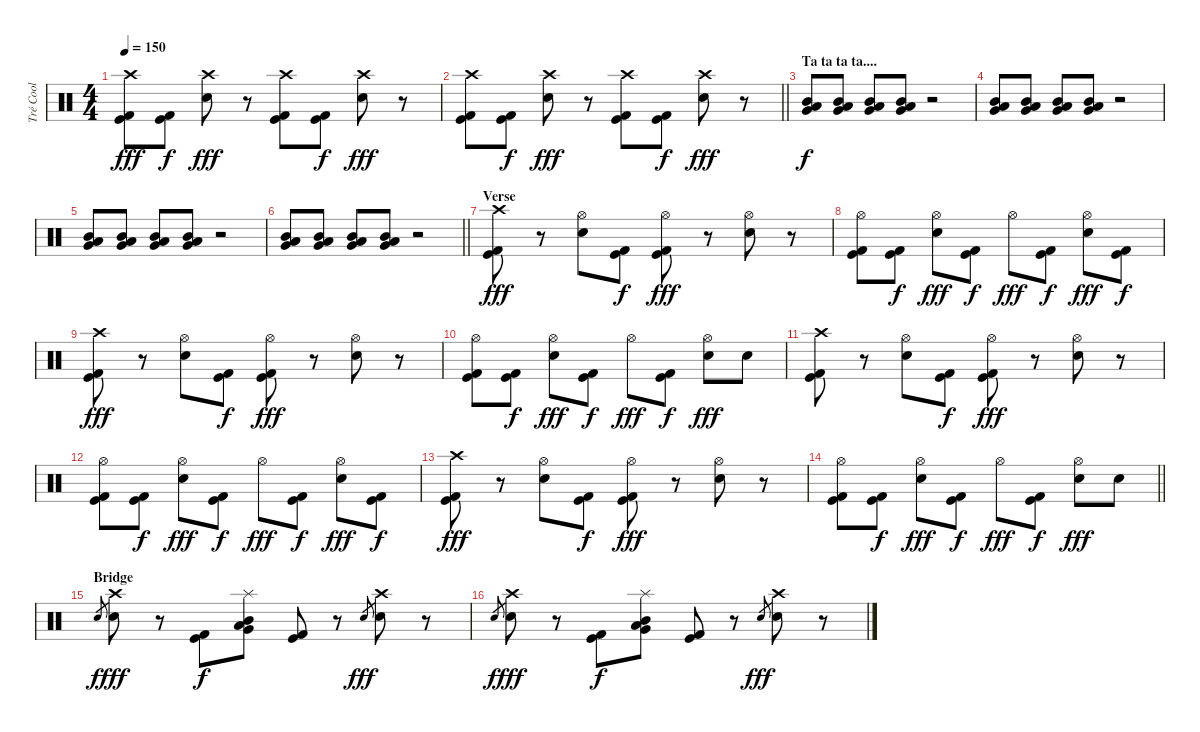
\track ("Tré Cool" "Tré Cool") {instrument percussion}
\staff {score}
\articulation defaults
\ts (4 4)
\tempo 150
\clef neutral
\ks c
("Crash high (hit)" "Kick (hit)" "Kick (hit) 2").8{dy fff} ("Kick (hit)" "Kick (hit) 2").8{dy f} ("Crash high (hit)" "Snare (hit) 2").8{dy fff} r.8 ("Crash high (hit)" "Kick (hit)" "Kick (hit) 2").8 ("Kick (hit)" "Kick (hit) 2").8{dy f} ("Crash high (hit)" "Snare (hit) 2").8{dy fff} r.8 |
\barLineRight lightlight
("Crash high (hit)" "Kick (hit)" "Kick (hit) 2").8 ("Kick (hit)" "Kick (hit) 2").8{dy f} ("Crash high (hit)" "Snare (hit) 2").8{dy fff} r.8 ("Crash high (hit)" "Kick (hit)" "Kick (hit) 2").8 ("Kick (hit)" "Kick (hit) 2").8{dy f} ("Crash high (hit)" "Snare (hit) 2").8{dy fff} r.8 |
\section ("" "Ta ta ta ta....")
("Mid Tom (hit)" "Low Tom (hit)" "Very Low Tom (hit)").8{dy f} ("Mid Tom (hit)" "Low Tom (hit)" "Very Low Tom (hit)").8 ("Mid Tom (hit)" "Low Tom (hit)" "Very Low Tom (hit)").8 ("Mid Tom (hit)" "Low Tom (hit)" "Very Low Tom (hit)").8 r.2 |
("Mid Tom (hit)" "Low Tom (hit)" "Very Low Tom (hit)").8 ("Mid Tom (hit)" "Low Tom (hit)" "Very Low Tom (hit)").8 ("Mid Tom (hit)" "Low Tom (hit)" "Very Low Tom (hit)").8 ("Mid Tom (hit)" "Low Tom (hit)" "Very Low Tom (hit)").8 r.2 |
("Mid Tom (hit)" "Low Tom (hit)" "Very Low Tom (hit)").8 ("Mid Tom (hit)" "Low Tom (hit)" "Very Low Tom (hit)").8 ("Mid Tom (hit)" "Low Tom (hit)" "Very Low Tom (hit)").8 ("Mid Tom (hit)" "Low Tom (hit)" "Very Low Tom (hit)").8 r.2 |
\barLineRight lightlight
("Mid Tom (hit)" "Low Tom (hit)" "Very Low Tom (hit)").8 ("Mid Tom (hit)" "Low Tom (hit)" "Very Low Tom (hit)").8 ("Mid Tom (hit)" "Low Tom (hit)" "Very Low Tom (hit)").8 ("Mid Tom (hit)" "Low Tom (hit)" "Very Low Tom (hit)").8 r.2 |
\section ("" "Verse")
("Crash high (hit)" "Kick (hit)" "Kick (hit) 2").8{dy fff} r.8 ("Hi-Hat (open)" "Snare (hit) 2").8 ("Kick (hit)" "Kick (hit) 2").8{dy f} ("Hi-Hat (open)" "Kick (hit)" "Kick (hit) 2").8{dy fff} r.8 ("Hi-Hat (open)" "Snare (hit) 2").8 r.8 |
("Hi-Hat (open)" "Kick (hit)" "Kick (hit) 2").8 ("Kick (hit)" "Kick (hit) 2").8{dy f} ("Hi-Hat (open)" "Snare (hit) 2").8{dy fff} ("Kick (hit)" "Kick (hit) 2").8{dy f} "Hi-Hat (open)".8{dy fff} ("Kick (hit)" "Kick (hit) 2").8{dy f} ("Hi-Hat (open)" "Snare (hit) 2").8{dy fff} ("Kick (hit)" "Kick (hit) 2").8{dy f} |
("Crash high (hit)" "Kick (hit)" "Kick (hit) 2").8{dy fff} r.8 ("Hi-Hat (open)" "Snare (hit) 2").8 ("Kick (hit)" "Kick (hit) 2").8{dy f} ("Hi-Hat (open)" "Kick (hit)" "Kick (hit) 2").8{dy fff} r.8 ("Hi-Hat (open)" "Snare (hit) 2").8 r.8 |
("Hi-Hat (open)" "Kick (hit)" "Kick (hit) 2").8 ("Kick (hit)" "Kick (hit) 2").8{dy f} ("Hi-Hat (open)" "Snare (hit) 2").8{dy fff} ("Kick (hit)" "Kick (hit) 2").8{dy f} "Hi-Hat (open)".8{dy fff} ("Kick (hit)" "Kick (hit) 2").8{dy f} ("Hi-Hat (open)" "Snare (hit) 2").8{dy fff} "Snare (hit) 2".8 |
("Crash high (hit)" "Kick (hit)" "Kick (hit) 2").8 r.8 ("Hi-Hat (open)" "Snare (hit) 2").8 ("Kick (hit)" "Kick (hit) 2").8{dy f} ("Hi-Hat (open)" "Kick (hit)" "Kick (hit) 2").8{dy fff} r.8 ("Hi-Hat (open)" "Snare (hit) 2").8 r.8 |
("Hi-Hat (open)" "Kick (hit)" "Kick (hit) 2").8 ("Kick (hit)" "Kick (hit) 2").8{dy f} ("Hi-Hat (open)" "Snare (hit) 2").8{dy fff} ("Kick (hit)" "Kick (hit) 2").8{dy f} "Hi-Hat (open)".8{dy fff} ("Kick (hit)" "Kick (hit) 2").8{dy f} ("Hi-Hat (open)" "Snare (hit) 2").8{dy fff} ("Kick (hit)" "Kick (hit) 2").8{dy f} |
("Crash high (hit)" "Kick (hit)" "Kick (hit) 2").8{dy fff} r.8 ("Hi-Hat (open)" "Snare (hit) 2").8 ("Kick (hit)" "Kick (hit) 2").8{dy f} ("Hi-Hat (open)" "Kick (hit)" "Kick (hit) 2").8{dy fff} r.8 ("Hi-Hat (open)" "Snare (hit) 2").8 r.8 |
\barLineRight lightlight
("Hi-Hat (open)" "Kick (hit)" "Kick (hit) 2").8 ("Kick (hit)" "Kick (hit) 2").8{dy f} ("Hi-Hat (open)" "Snare (hit) 2").8{dy fff} ("Kick (hit)" "Kick (hit) 2").8{dy f} "Hi-Hat (open)".8{dy fff} ("Kick (hit)" "Kick (hit) 2").8{dy f} ("Hi-Hat (open)" "Snare (hit) 2").8{dy fff} "Snare (hit) 2".8 |
\section ("" "Bridge")
"Snare (hit) 2".8{gr dy f} ("Crash high (hit)" "Snare (hit) 2").8{dy fff} r.8 ("Kick (hit)" "Kick (hit) 2").8{dy f} ("Splash (hit)" "Mid Tom (hit)" "Low Tom (hit)" "Very Low Tom (hit)").8 ("Kick (hit)" "Kick (hit) 2").8 r.8 "Snare (hit) 2".8{gr dy fff} ("Crash high (hit)" "Snare (hit) 2").8 r.8 |
"Snare (hit) 2".8{gr dy f} ("Crash high (hit)" "Snare (hit) 2").8{dy fff} r.8 ("Kick (hit)" "Kick (hit) 2").8{dy f} ("Splash (hit)" "Mid Tom (hit)" "Low Tom (hit)" "Very Low Tom (hit)").8 ("Kick (hit)" "Kick (hit) 2").8 r.8 "Snare (hit) 2".8{gr dy fff} ("Crash high (hit)" "Snare (hit) 2").8 r.8
